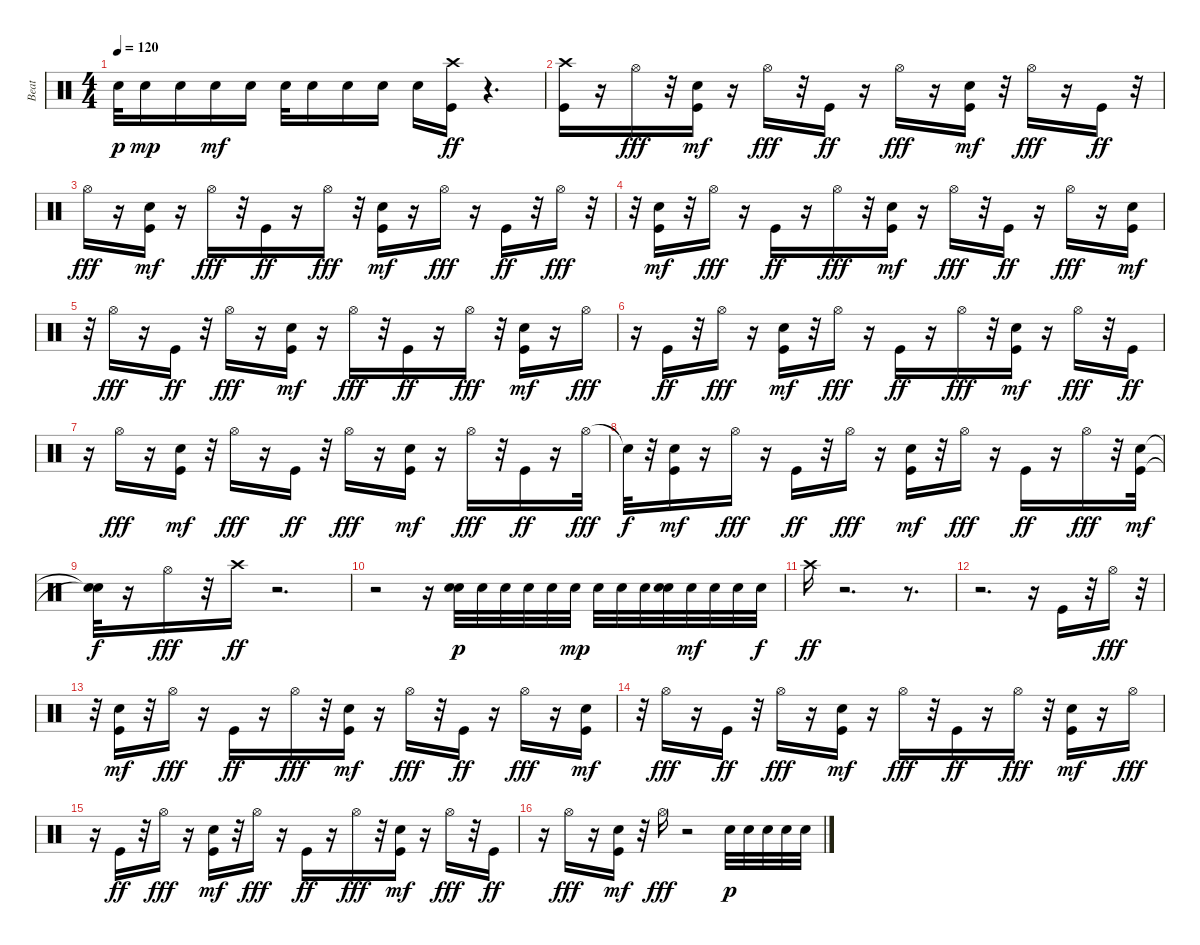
\track ("Beat" "Beat") {instrument percussion}
\staff {score}
\articulation defaults
\ts (4 4)
\tempo 120
\clef neutral
\ks c "Snare (hit) 2".32{dy p} "Snare (hit) 2".16{dy mp} "Snare (hit) 2".16 "Snare (hit) 2".16{dy mf} "Snare (hit) 2".16 "Snare (hit) 2".32 "Snare (hit) 2".16 "Snare (hit) 2".16 "Snare (hit) 2".16 "Snare (hit) 2".16
("Kick (hit)" "Crash high (hit)").16{dy ff} r.4{d} |
("Kick (hit)" "Crash high (hit)").16 r.16 "Hi-Hat (open)".16{dy fff} r.32 ("Kick (hit)" "Hand Clap (hit)").16{dy mf} r.16 "Hi-Hat (open)".16{dy fff} r.32 "Kick (hit)".16{dy ff} r.16 "Hi-Hat (open)".16{dy fff} r.16 ("Kick (hit)" "Hand Clap (hit)").16{dy mf} r.32 "Hi-Hat (open)".16{dy fff} r.16 "Kick (hit)".16{dy ff} r.32 |
"Hi-Hat (open)".16{dy fff} r.16 ("Kick (hit)" "Hand Clap (hit)").16{dy mf} r.16 "Hi-Hat (open)".16{dy fff} r.32 "Kick (hit)".16{dy ff} r.16 "Hi-Hat (open)".16{dy fff} r.32 ("Kick (hit)" "Hand Clap (hit)").16{dy mf} r.16 "Hi-Hat (open)".16{dy fff} r.16 "Kick (hit)".16{dy ff} r.32 "Hi-Hat (open)".16{dy fff} r.32 |
r.32 ("Kick (hit)" "Hand Clap (hit)").16{dy mf} r.32 "Hi-Hat (open)".16{dy fff} r.16 "Kick (hit)".16{dy ff} r.16 "Hi-Hat (open)".16{dy fff} r.32 ("Kick (hit)" "Hand Clap (hit)").16{dy mf} r.16 "Hi-Hat (open)".16{dy fff} r.32 "Kick (hit)".16{dy ff} r.16 "Hi-Hat (open)".16{dy fff} r.16 ("Kick (hit)" "Hand Clap (hit)").16{dy mf} |
r.32 "Hi-Hat (open)".16{dy fff} r.16 "Kick (hit)".16{dy ff} r.32 "Hi-Hat (open)".16{dy fff} r.16 ("Kick (hit)" "Hand Clap (hit)").16{dy mf} r.16 "Hi-Hat (open)".16{dy fff} r.32 "Kick (hit)".16{dy ff} r.16 "Hi-Hat (open)".16{dy fff} r.32 ("Kick (hit)" "Hand Clap (hit)").16{dy mf} r.16 "Hi-Hat (open)".16{dy fff} |
r.16 "Kick (hit)".16{dy ff} r.32 "Hi-Hat (open)".16{dy fff} r.16 ("Kick (hit)" "Hand Clap (hit)").16{dy mf} r.32 "Hi-Hat (open)".16{dy fff} r.16 "Kick (hit)".16{dy ff} r.16 "Hi-Hat (open)".16{dy fff} r.32 ("Kick (hit)" "Hand Clap (hit)").16{dy mf} r.16 "Hi-Hat (open)".16{dy fff} r.32 "Kick (hit)".16{dy ff} |
r.16 "Hi-Hat (open)".16{dy fff} r.16 ("Kick (hit)" "Hand Clap (hit)").16{dy mf} r.32 "Hi-Hat (open)".16{dy fff} r.16 "Kick (hit)".16{dy ff} r.32 "Hi-Hat (open)".16{dy fff} r.16 ("Kick (hit)" "Hand Clap (hit)").16{dy mf} r.16 "Hi-Hat (open)".16{dy fff} r.32 "Kick (hit)".16{dy ff} r.16 "Hi-Hat (open)".32{dy fff} |
"Snare (hit)"{t}.32{dy f} r.32 ("Kick (hit)" "Hand Clap (hit)").16{dy mf} r.16 "Hi-Hat (open)".16{dy fff} r.16 "Kick (hit)".16{dy ff} r.32 "Hi-Hat (open)".16{dy fff} r.16 ("Kick (hit)" "Hand Clap (hit)").16{dy mf} r.32 "Hi-Hat (open)".16{dy fff} r.16 "Kick (hit)".16{dy ff} r.16 "Hi-Hat (open)".16{dy fff} r.32 ("Kick (hit)" "Hand Clap (hit)").32{dy mf} |
("Snare (hit)"{t} "Snare (hit)"{t}).32{dy f} r.16 "Hi-Hat (open)".16{dy fff} r.32 "Crash high (hit)".16{dy ff} r.2{d} |
r.2 r.16 ("Snare (hit) 2" "Snare (hit) 2").32{dy p} "Snare (hit) 2".32 "Snare (hit) 2".32 "Snare (hit) 2".32 "Snare (hit) 2".32 "Snare (hit) 2".32{dy mp} "Snare (hit) 2".32 "Snare (hit) 2".32 "Snare (hit) 2".32 ("Snare (hit) 2" "Snare (hit) 2").32 "Snare (hit) 2".32{dy mf} "Snare (hit) 2".32 "Snare (hit) 2".32 "Snare (hit) 2".32{dy f} |
"Crash high (hit)".16{dy ff} r.2{d} r.8{d} |
r.2{d} r.16 "Kick (hit)".16 r.32 "Hi-Hat (open)".16{dy fff} r.32 |
r.32 ("Kick (hit)" "Hand Clap (hit)").16{dy mf} r.32 "Hi-Hat (open)".16{dy fff} r.16 "Kick (hit)".16{dy ff} r.16 "Hi-Hat (open)".16{dy fff} r.32 ("Kick (hit)" "Hand Clap (hit)").16{dy mf} r.16 "Hi-Hat (open)".16{dy fff} r.32 "Kick (hit)".16{dy ff} r.16 "Hi-Hat (open)".16{dy fff} r.16 ("Kick (hit)" "Hand Clap (hit)").16{dy mf} |
r.32 "Hi-Hat (open)".16{dy fff} r.16 "Kick (hit)".16{dy ff} r.32 "Hi-Hat (open)".16{dy fff} r.16 ("Kick (hit)" "Hand Clap (hit)").16{dy mf} r.16 "Hi-Hat (open)".16{dy fff} r.32 "Kick (hit)".16{dy ff} r.16 "Hi-Hat (open)".16{dy fff} r.32 ("Kick (hit)" "Hand Clap (hit)").16{dy mf} r.16 "Hi-Hat (open)".16{dy fff} |
r.16 "Kick (hit)".16{dy ff} r.32 "Hi-Hat (open)".16{dy fff} r.16 ("Kick (hit)" "Hand Clap (hit)").16{dy mf} r.32 "Hi-Hat (open)".16{dy fff} r.16 "Kick (hit)".16{dy ff} r.16 "Hi-Hat (open)".16{dy fff} r.32 ("Kick (hit)" "Hand Clap (hit)").16{dy mf} r.16 "Hi-Hat (open)".16{dy fff} r.32 "Kick (hit)".16{dy ff} |
r.16 "Hi-Hat (open)".16{dy fff} r.16 ("Kick (hit)" "Hand Clap (hit)").16{dy mf} r.32 "Hi-Hat (open)".16{dy fff} r.2 "Snare (hit) 2".32{dy p} "Snare (hit) 2".32 "Snare (hit) 2".32 "Snare (hit) 2".32 "Snare (hit) 2".32
